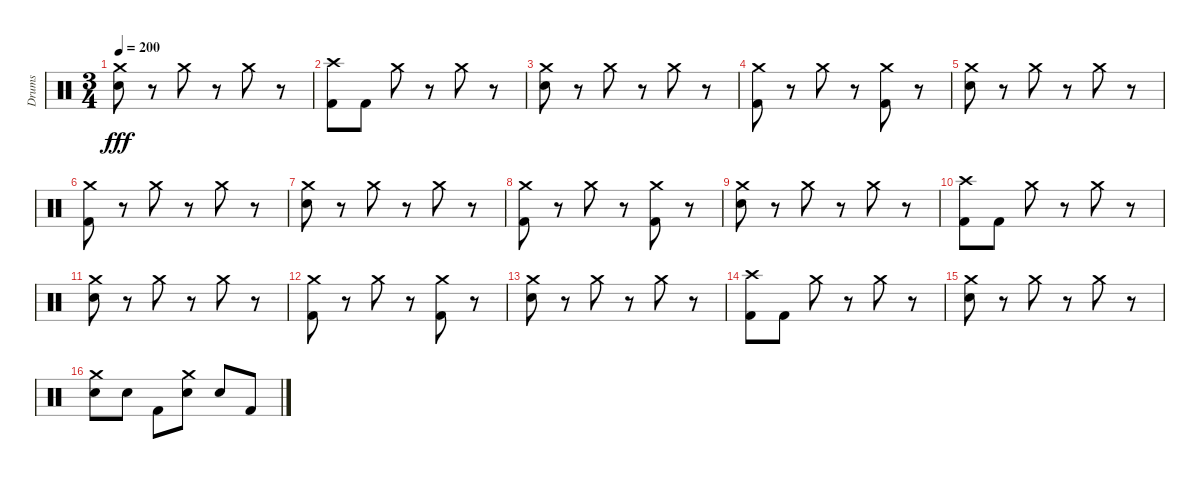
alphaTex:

\track ("Drums" "Drums") {instrument percussion}
\staff {score}
\articulation defaults
\ts (3 4)
\tempo 200
\clef neutral
\ks c
("Crash medium (hit)" "Snare (hit) 2").8{dy fff} r.8 "Crash medium (hit)".8 r.8 "Crash medium (hit)".8 r.8 |
("Crash high (hit)" "Kick (hit) 2").8 "Kick (hit) 2".8 "Crash medium (hit)".8 r.8 "Crash medium (hit)".8 r.8 |
("Crash medium (hit)" "Snare (hit) 2").8 r.8 "Crash medium (hit)".8 r.8 "Crash medium (hit)".8 r.8 |
("Crash medium (hit)" "Kick (hit) 2").8 r.8 "Crash medium (hit)".8 r.8 ("Crash medium (hit)" "Kick (hit) 2").8 r.8 |
("Crash medium (hit)" "Snare (hit) 2").8 r.8 "Crash medium (hit)".8 r.8 "Crash medium (hit)".8 r.8 |
("Crash medium (hit)" "Kick (hit) 2").8 r.8 "Crash medium (hit)".8 r.8 "Crash medium (hit)".8 r.8 |
("Crash medium (hit)" "Snare (hit) 2").8 r.8 "Crash medium (hit)".8 r.8 "Crash medium (hit)".8 r.8 |
("Crash medium (hit)" "Kick (hit) 2").8 r.8 "Crash medium (hit)".8 r.8 ("Crash medium (hit)" "Kick (hit) 2").8 r.8 |
("Crash medium (hit)" "Snare (hit) 2").8 r.8 "Crash medium (hit)".8 r.8 "Crash medium (hit)".8 r.8 |
("Crash high (hit)" "Kick (hit) 2").8 "Kick (hit) 2".8 "Crash medium (hit)".8 r.8 "Crash medium (hit)".8 r.8 |
("Crash medium (hit)" "Snare (hit) 2").8 r.8 "Crash medium (hit)".8 r.8 "Crash medium (hit)".8 r.8 |
("Crash medium (hit)" "Kick (hit) 2").8 r.8 "Crash medium (hit)".8 r.8 ("Crash medium (hit)" "Kick (hit) 2").8 r.8 |
("Crash medium (hit)" "Snare (hit) 2").8 r.8 "Crash medium (hit)".8 r.8 "Crash medium (hit)".8 r.8 |
("Crash high (hit)" "Kick (hit) 2").8 "Kick (hit) 2".8 "Crash medium (hit)".8 r.8 "Crash medium (hit)".8 r.8 |
("Crash medium (hit)" "Snare (hit) 2").8 r.8 "Crash medium (hit)".8 r.8 "Crash medium (hit)".8 r.8 |
("Crash medium (hit)" "Snare (hit) 2").8 "Snare (hit) 2".8 "Kick (hit) 2".8 ("Crash medium (hit)" "Snare (hit) 2").8 "Snare (hit) 2".8 "Kick (hit) 2".8
